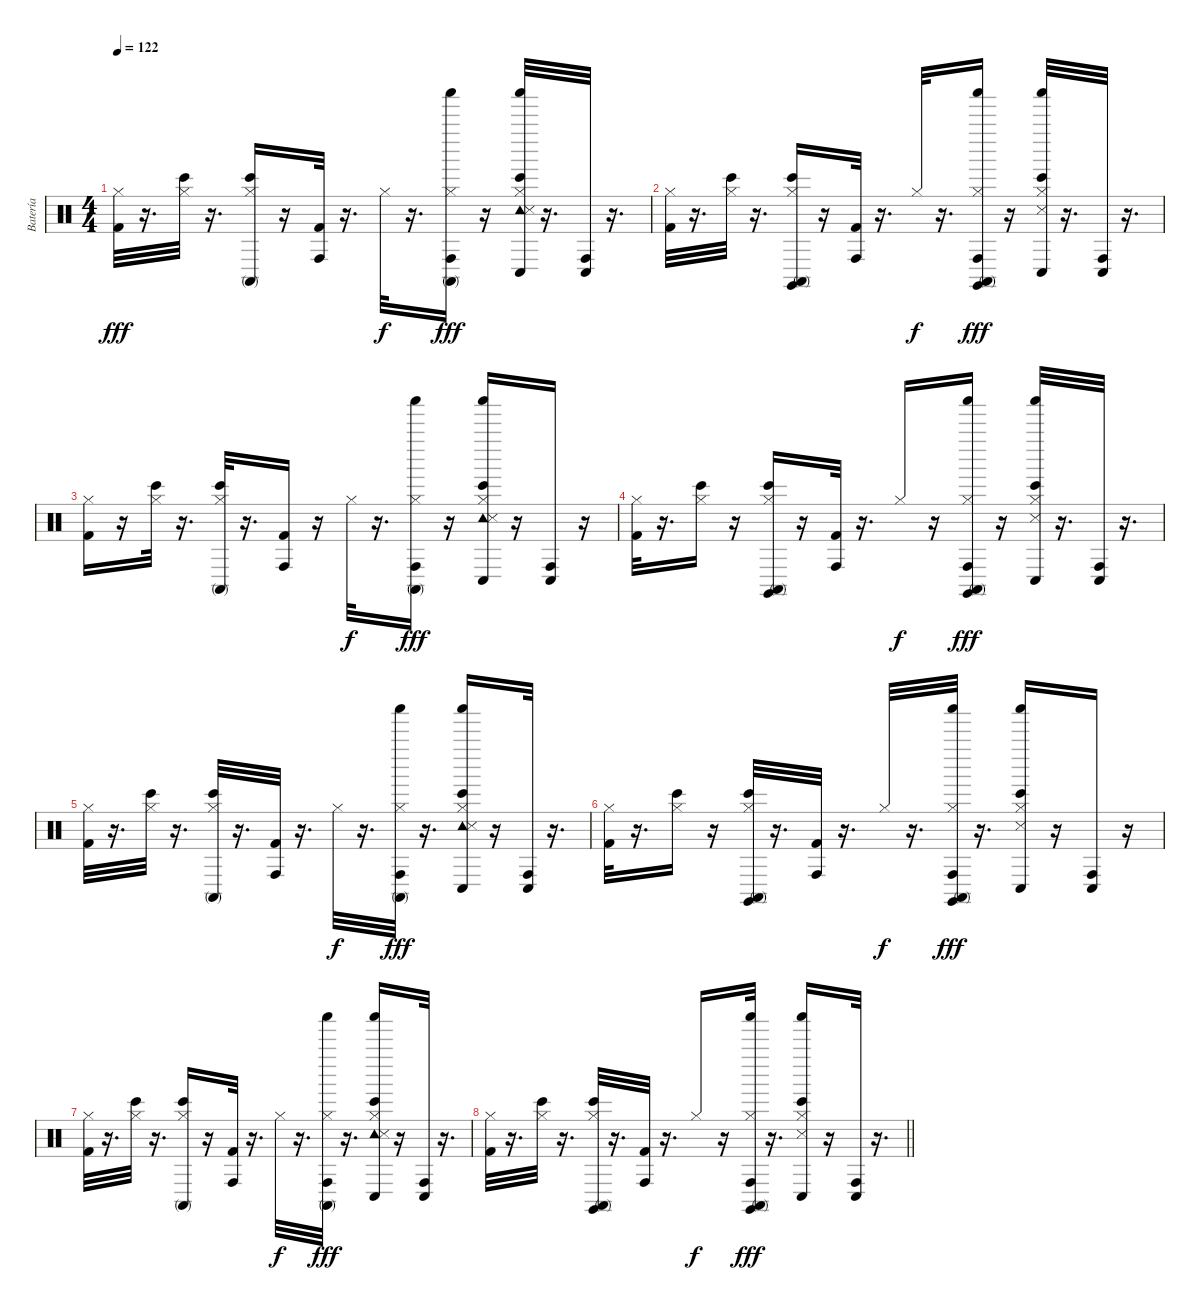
\track ("Batería" "Batería") {instrument percussion}
\staff {score}
\articulation defaults
\ts (4 4)
\tempo 122
\clef neutral
\ks c
("Hi-Hat (closed)" "Kick (hit) 2").32{dy fff} r.16{d} ("Bongo High (hit)" "Hi-Hat (closed)").32 r.16{d} ("Bongo High (hit)" "Conga high (mute)" "Hi-Hat (closed)").16 r.16 ("Conga high (hit)" "Kick (hit) 2").32 r.16{d} "Hi-Hat (closed)".32{dy f} r.16{d} ("Conga high (hit)" "Conga high (mute)" "Shaker (hit)" "Hi-Hat (closed)").16{dy fff} r.16 ("Tambourine (hit)" "Snare (side stick) 3" "Bongo High (hit)" "Conga low (hit)" "Shaker (hit)" "Hi-Hat (closed)").32 r.16{d} ("Conga high (hit)" "Conga low (hit)").32 r.16{d} |
("Hi-Hat (closed)" "Kick (hit) 2").32 r.16{d} ("Bongo High (hit)" "Hi-Hat (closed)").32 r.16{d} ("Claves (hit)" "Bongo High (hit)" "Conga high (mute)" "Hi-Hat (closed)").16 r.16 ("Conga high (hit)" "Kick (hit) 2").32 r.16{d} "Hi-Hat (closed)".32{dy f} r.16{d} ("Claves (hit)" "Conga high (hit)" "Conga high (mute)" "Shaker (hit)" "Hi-Hat (closed)").16{dy fff} r.16 ("Snare (side stick) 3" "Bongo High (hit)" "Conga low (hit)" "Shaker (hit)" "Hi-Hat (closed)").32 r.16{d} ("Conga high (hit)" "Conga low (hit)").32 r.16{d} |
("Hi-Hat (closed)" "Kick (hit) 2").16 r.16 ("Bongo High (hit)" "Hi-Hat (closed)").32 r.16{d} ("Bongo High (hit)" "Conga high (mute)" "Hi-Hat (closed)").32 r.16{d} ("Conga high (hit)" "Kick (hit) 2").16 r.16 "Hi-Hat (closed)".32{dy f} r.16{d} ("Conga high (hit)" "Conga high (mute)" "Shaker (hit)" "Hi-Hat (closed)").16{dy fff} r.16 ("Tambourine (hit)" "Snare (side stick) 3" "Bongo High (hit)" "Conga low (hit)" "Shaker (hit)" "Hi-Hat (closed)").16 r.16 ("Conga high (hit)" "Conga low (hit)").16 r.16 |
("Hi-Hat (closed)" "Kick (hit) 2").32 r.16{d} ("Bongo High (hit)" "Hi-Hat (closed)").16 r.16 ("Claves (hit)" "Bongo High (hit)" "Conga high (mute)" "Hi-Hat (closed)").16 r.16 ("Conga high (hit)" "Kick (hit) 2").32 r.16{d} "Hi-Hat (closed)".16{dy f} r.16 ("Claves (hit)" "Conga high (hit)" "Conga high (mute)" "Shaker (hit)" "Hi-Hat (closed)").16{dy fff} r.16 ("Snare (side stick) 3" "Bongo High (hit)" "Conga low (hit)" "Shaker (hit)" "Hi-Hat (closed)").32 r.16{d} ("Conga high (hit)" "Conga low (hit)").32 r.16{d} |
("Hi-Hat (closed)" "Kick (hit) 2").32 r.16{d} ("Bongo High (hit)" "Hi-Hat (closed)").32 r.16{d} ("Bongo High (hit)" "Conga high (mute)" "Hi-Hat (closed)").32 r.16{d} ("Conga high (hit)" "Kick (hit) 2").32 r.16{d} "Hi-Hat (closed)".32{dy f} r.16{d} ("Conga high (hit)" "Conga high (mute)" "Shaker (hit)" "Hi-Hat (closed)").32{dy fff} r.16{d} ("Tambourine (hit)" "Snare (side stick) 3" "Bongo High (hit)" "Conga low (hit)" "Shaker (hit)" "Hi-Hat (closed)").16 r.16 ("Conga high (hit)" "Conga low (hit)").32 r.16{d} |
("Hi-Hat (closed)" "Kick (hit) 2").32 r.16{d} ("Bongo High (hit)" "Hi-Hat (closed)").16 r.16 ("Claves (hit)" "Bongo High (hit)" "Conga high (mute)" "Hi-Hat (closed)").32 r.16{d} ("Conga high (hit)" "Kick (hit) 2").32 r.16{d} "Hi-Hat (closed)".32{dy f} r.16{d} ("Claves (hit)" "Conga high (hit)" "Conga high (mute)" "Shaker (hit)" "Hi-Hat (closed)").32{dy fff} r.16{d} ("Snare (side stick) 3" "Bongo High (hit)" "Conga low (hit)" "Shaker (hit)" "Hi-Hat (closed)").16 r.16 ("Conga high (hit)" "Conga low (hit)").16 r.16 |
("Hi-Hat (closed)" "Kick (hit) 2").32 r.16{d} ("Bongo High (hit)" "Hi-Hat (closed)").32 r.16{d} ("Bongo High (hit)" "Conga high (mute)" "Hi-Hat (closed)").16 r.16 ("Conga high (hit)" "Kick (hit) 2").32 r.16{d} "Hi-Hat (closed)".32{dy f} r.16{d} ("Conga high (hit)" "Conga high (mute)" "Shaker (hit)" "Hi-Hat (closed)").32{dy fff} r.16{d} ("Tambourine (hit)" "Snare (side stick) 3" "Bongo High (hit)" "Conga low (hit)" "Shaker (hit)" "Hi-Hat (closed)").16 r.16 ("Conga high (hit)" "Conga low (hit)").32 r.16{d} |
\barLineRight lightlight
("Hi-Hat (closed)" "Kick (hit) 2").32 r.16{d} ("Bongo High (hit)" "Hi-Hat (closed)").32 r.16{d} ("Claves (hit)" "Bongo High (hit)" "Conga high (mute)" "Hi-Hat (closed)").32 r.16{d} ("Conga high (hit)" "Kick (hit) 2").32 r.16{d} "Hi-Hat (closed)".16{dy f} r.16 ("Claves (hit)" "Conga high (hit)" "Conga high (mute)" "Shaker (hit)" "Hi-Hat (closed)").32{dy fff} r.16{d} ("Snare (side stick) 3" "Bongo High (hit)" "Conga low (hit)" "Shaker (hit)" "Hi-Hat (closed)").16 r.16 ("Conga high (hit)" "Conga low (hit)").32 r.16{d}
